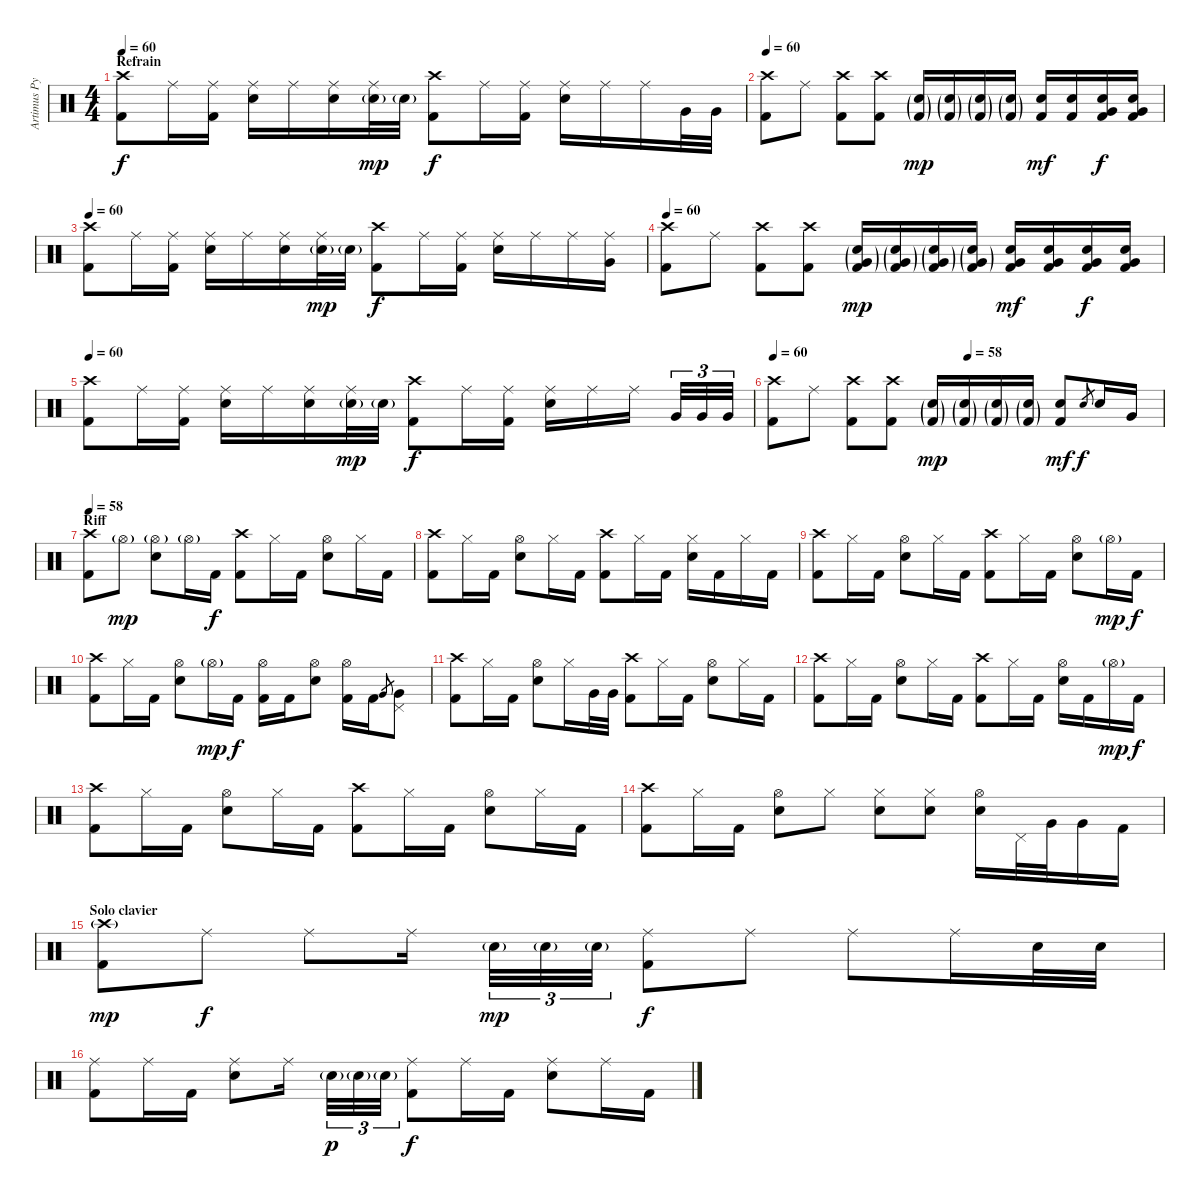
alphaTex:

\track ("Artimus Pyle (drums)" "Artimus Py") {instrument percussion}
\staff {score}
\articulation defaults
\ts (4 4)
\section ("" "Refrain")
\tempo 60
\clef neutral
\ks c
("Crash high (hit)" "Kick (hit) 2").8{dy f} "Ride (middle)".16 ("Ride (middle)" "Kick (hit) 2").16 ("Ride (middle)" "Electric Snare (hit)").16 "Ride (middle)".16 ("Ride (middle)" "Electric Snare (hit)").16 ("Ride (middle)" "Electric Snare (hit)"{g}).32{dy mp} "Electric Snare (hit)"{g}.32 ("Crash high (hit)" "Kick (hit) 2").8{dy f} "Ride (middle)".16 ("Ride (middle)" "Kick (hit) 2").16 ("Ride (middle)" "Electric Snare (hit)").16 "Ride (middle)".16 "Ride (middle)".16 "Very Low Tom (hit)".32 "Very Low Tom (hit)".32 |
\tempo 60
("Crash high (hit)" "Kick (hit) 2").8 "Ride (middle)".8 ("Crash high (hit)" "Kick (hit) 2").8 ("Crash high (hit)" "Kick (hit) 2").8 ("Electric Snare (hit)"{g} "Kick (hit) 2"{g}).16{dy mp} ("Electric Snare (hit)"{g} "Kick (hit) 2"{g}).16 ("Electric Snare (hit)"{g} "Kick (hit) 2"{g}).16 ("Electric Snare (hit)"{g} "Kick (hit) 2"{g}).16 ("Electric Snare (hit)" "Kick (hit) 2").16{dy mf} ("Electric Snare (hit)" "Kick (hit) 2").16 ("Very Low Tom (hit)" "Electric Snare (hit)" "Kick (hit) 2").16{dy f} ("Very Low Tom (hit)" "Electric Snare (hit)" "Kick (hit) 2").16 |
\tempo 60
("Crash high (hit)" "Kick (hit) 2").8 "Ride (middle)".16 ("Ride (middle)" "Kick (hit) 2").16 ("Ride (middle)" "Electric Snare (hit)").16 "Ride (middle)".16 ("Ride (middle)" "Electric Snare (hit)").16 ("Ride (middle)" "Electric Snare (hit)"{g}).32{dy mp} "Electric Snare (hit)"{g}.32 ("Crash high (hit)" "Kick (hit) 2").8{dy f} "Ride (middle)".16 ("Ride (middle)" "Kick (hit) 2").16 ("Ride (middle)" "Electric Snare (hit)").16 "Ride (middle)".16 "Ride (middle)".16 ("Ride (middle)" "Very Low Tom (hit)").16 |
\tempo 60
("Crash high (hit)" "Kick (hit) 2").8 "Ride (middle)".8 ("Crash high (hit)" "Kick (hit) 2").8 ("Crash high (hit)" "Kick (hit) 2").8 ("Very Low Tom (hit)"{g} "Electric Snare (hit)"{g} "Kick (hit) 2"{g}).16{dy mp} ("Very Low Tom (hit)"{g} "Electric Snare (hit)"{g} "Kick (hit) 2"{g}).16 ("Very Low Tom (hit)"{g} "Electric Snare (hit)"{g} "Kick (hit) 2"{g}).16 ("Very Low Tom (hit)"{g} "Electric Snare (hit)"{g} "Kick (hit) 2"{g}).16 ("Very Low Tom (hit)" "Electric Snare (hit)" "Kick (hit) 2").16{dy mf} ("Very Low Tom (hit)" "Electric Snare (hit)" "Kick (hit) 2").16 ("Very Low Tom (hit)" "Electric Snare (hit)" "Kick (hit) 2").16{dy f} ("Very Low Tom (hit)" "Electric Snare (hit)" "Kick (hit) 2").16 |
\tempo 60
("Crash high (hit)" "Kick (hit) 2").8 "Ride (middle)".16 ("Ride (middle)" "Kick (hit) 2").16 ("Ride (middle)" "Electric Snare (hit)").16 "Ride (middle)".16 ("Ride (middle)" "Electric Snare (hit)").16 ("Ride (middle)" "Electric Snare (hit)"{g}).32{dy mp} "Electric Snare (hit)"{g}.32 ("Crash high (hit)" "Kick (hit) 2").8{dy f} "Ride (middle)".16 ("Ride (middle)" "Kick (hit) 2").16 ("Ride (middle)" "Electric Snare (hit)").16 "Ride (middle)".16 "Ride (middle)".16 "Very Low Tom (hit)".32{tu (3 2)} "Very Low Tom (hit)".32{tu (3 2)} "Very Low Tom (hit)".32{tu (3 2)} |
\tempo (58 0.5)
\tempo 60
("Crash high (hit)" "Kick (hit) 2").8 "Ride (middle)".8 ("Crash high (hit)" "Kick (hit) 2").8 ("Crash high (hit)" "Kick (hit) 2").8 ("Electric Snare (hit)"{g} "Kick (hit) 2"{g}).16{dy mp} ("Electric Snare (hit)"{g} "Kick (hit) 2"{g}).16 ("Electric Snare (hit)"{g} "Kick (hit) 2"{g}).16 ("Electric Snare (hit)"{g} "Kick (hit) 2"{g}).16 ("Electric Snare (hit)" "Kick (hit) 2").8{dy mf} "Electric Snare (hit)".8{gr dy f} "Electric Snare (hit)".16 "Very Low Tom (hit)".16 |
\section ("" "Riff")
\tempo 58
("Crash high (hit)" "Kick (hit) 2").8 "Hi-Hat (open)"{g}.8{dy mp} ("Hi-Hat (open)"{g} "Electric Snare (hit)").8 "Hi-Hat (open)"{g}.16 "Kick (hit) 2".16{dy f} ("Crash high (hit)" "Kick (hit) 2").8 "Hi-Hat (closed)".16 "Kick (hit) 2".16 ("Hi-Hat (open)" "Electric Snare (hit)").8 "Hi-Hat (closed)".16 "Kick (hit) 2".16 |
("Crash high (hit)" "Kick (hit) 2").8 "Hi-Hat (closed)".16 "Kick (hit) 2".16 ("Hi-Hat (open)" "Electric Snare (hit)").8 "Hi-Hat (closed)".16 "Kick (hit) 2".16 ("Crash high (hit)" "Kick (hit) 2").8 "Hi-Hat (closed)".16 "Kick (hit) 2".16 ("Hi-Hat (closed)" "Electric Snare (hit)").16 "Kick (hit) 2".16 "Hi-Hat (closed)".16 "Kick (hit) 2".16 |
("Crash high (hit)" "Kick (hit) 2").8 "Hi-Hat (closed)".16 "Kick (hit) 2".16 ("Hi-Hat (open)" "Electric Snare (hit)").8 "Hi-Hat (closed)".16 "Kick (hit) 2".16 ("Crash high (hit)" "Kick (hit) 2").8 "Hi-Hat (closed)".16 "Kick (hit) 2".16 ("Hi-Hat (open)" "Electric Snare (hit)").8 "Hi-Hat (open)"{g}.16{dy mp} "Kick (hit) 2".16{dy f} |
("Crash high (hit)" "Kick (hit) 2").8 "Hi-Hat (closed)".16 "Kick (hit) 2".16 ("Hi-Hat (open)" "Electric Snare (hit)").8 "Hi-Hat (open)"{g}.16{dy mp} "Kick (hit) 2".16{dy f} ("Hi-Hat (open)" "Kick (hit) 2").16 "Kick (hit) 2".16 ("Hi-Hat (open)" "Electric Snare (hit)").8 ("Hi-Hat (open)" "Kick (hit) 2").16 "Kick (hit) 2".16 "Very Low Tom (hit)".8{gr} ("Pedal Hi-Hat (hit)" "Very Low Tom (hit)").8 |
("Crash high (hit)" "Kick (hit) 2").8 "Hi-Hat (closed)".16 "Kick (hit) 2".16 ("Hi-Hat (open)" "Electric Snare (hit)").8 "Hi-Hat (closed)".16 "Very Low Tom (hit)".32 "Very Low Tom (hit)".32 ("Crash high (hit)" "Kick (hit) 2").8 "Hi-Hat (closed)".16 "Kick (hit) 2".16 ("Hi-Hat (open)" "Electric Snare (hit)").8 "Hi-Hat (closed)".16 "Kick (hit) 2".16 |
("Crash high (hit)" "Kick (hit) 2").8 "Hi-Hat (closed)".16 "Kick (hit) 2".16 ("Hi-Hat (open)" "Electric Snare (hit)").8 "Hi-Hat (closed)".16 "Kick (hit) 2".16 ("Crash high (hit)" "Kick (hit) 2").8 "Hi-Hat (closed)".16 "Kick (hit) 2".16 ("Hi-Hat (open)" "Electric Snare (hit)").16 "Kick (hit) 2".16 "Hi-Hat (open)"{g}.16{dy mp} "Kick (hit) 2".16{dy f} |
("Crash high (hit)" "Kick (hit) 2").8 "Hi-Hat (closed)".16 "Kick (hit) 2".16 ("Hi-Hat (open)" "Electric Snare (hit)").8 "Hi-Hat (closed)".16 "Kick (hit) 2".16 ("Crash high (hit)" "Kick (hit) 2").8 "Hi-Hat (closed)".16 "Kick (hit) 2".16 ("Hi-Hat (open)" "Electric Snare (hit)").8 "Hi-Hat (closed)".16 "Kick (hit) 2".16 |
("Crash high (hit)" "Kick (hit) 2").8 "Hi-Hat (closed)".16 "Kick (hit) 2".16 ("Hi-Hat (open)" "Electric Snare (hit)").8 "Hi-Hat (closed)".8 ("Hi-Hat (closed)" "Electric Snare (hit)").8 ("Hi-Hat (closed)" "Electric Snare (hit)").8 ("Hi-Hat (open)" "Electric Snare (hit)").16 "Pedal Hi-Hat (hit)".32 "Very Low Tom (hit)".32 "Very Low Tom (hit)".16 "Kick (hit) 2".16 |
\section ("" "Solo clavier")
("Crash high (hit)"{g} "Kick (hit) 2").8{dy mp} "Ride (middle)".8{dy f} "Ride (middle)".8 "Ride (middle)".16 "Electric Snare (hit)"{g}.32{tu (3 2) dy mp} "Electric Snare (hit)"{g}.32{tu (3 2)} "Electric Snare (hit)"{g}.32{tu (3 2)} ("Ride (middle)" "Kick (hit) 2").8{dy f} "Ride (middle)".8 "Ride (middle)".8 "Ride (middle)".16 "Electric Snare (hit)".32 "Electric Snare (hit)".32 |
("Ride (middle)" "Kick (hit) 2").8 "Ride (middle)".16 "Kick (hit) 2".16 ("Ride (middle)" "Electric Snare (hit)").8 "Ride (middle)".16 "Electric Snare (hit)"{g}.32{tu (3 2) dy p} "Electric Snare (hit)"{g}.32{tu (3 2)} "Electric Snare (hit)"{g}.32{tu (3 2)} ("Ride (middle)" "Kick (hit) 2").8{dy f} "Ride (middle)".16 "Kick (hit) 2".16 ("Ride (middle)" "Electric Snare (hit)").8 "Ride (middle)".16 "Kick (hit) 2".16
